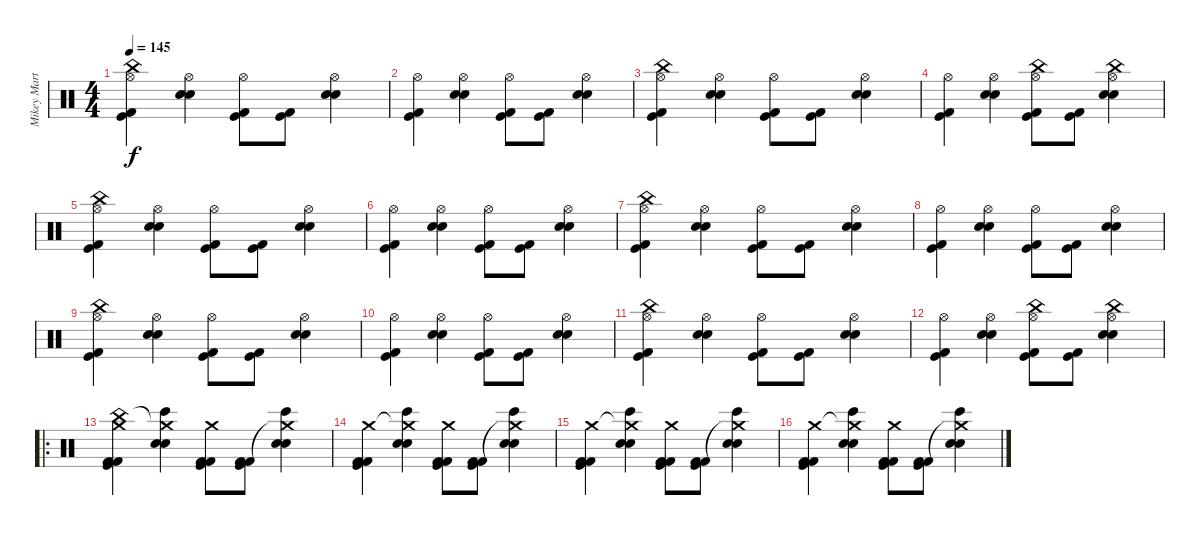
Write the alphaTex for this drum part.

\track ("Mikey Martin" "Mikey Mart") {instrument percussion}
\staff {score}
\articulation defaults
\ts (4 4)
\tempo 145
\clef neutral
\ks c
("China (hit)" "Hi-Hat (open)" "Kick (hit)" "Kick (hit) 2").4{dy f} ("Hi-Hat (open)" "Snare (hit) 2" "Electric Snare (hit)").4 ("Hi-Hat (open)" "Kick (hit)" "Kick (hit) 2").8 ("Kick (hit)" "Kick (hit) 2").8 ("Hi-Hat (open)" "Snare (hit) 2" "Electric Snare (hit)").4 |
("Hi-Hat (open)" "Kick (hit)" "Kick (hit) 2").4 ("Hi-Hat (open)" "Snare (hit) 2" "Electric Snare (hit)").4 ("Hi-Hat (open)" "Kick (hit)" "Kick (hit) 2").8 ("Kick (hit)" "Kick (hit) 2").8 ("Hi-Hat (open)" "Snare (hit) 2" "Electric Snare (hit)").4 |
("China (hit)" "Hi-Hat (open)" "Kick (hit)" "Kick (hit) 2").4 ("Hi-Hat (open)" "Snare (hit) 2" "Electric Snare (hit)").4 ("Hi-Hat (open)" "Kick (hit)" "Kick (hit) 2").8 ("Kick (hit)" "Kick (hit) 2").8 ("Hi-Hat (open)" "Snare (hit) 2" "Electric Snare (hit)").4 |
("Hi-Hat (open)" "Kick (hit)" "Kick (hit) 2").4 ("Hi-Hat (open)" "Snare (hit) 2" "Electric Snare (hit)").4 ("China (hit)" "Hi-Hat (open)" "Kick (hit)" "Kick (hit) 2").8 ("Kick (hit)" "Kick (hit) 2").8 ("China (hit)" "Hi-Hat (open)" "Snare (hit) 2" "Electric Snare (hit)").4 |
("China (hit)" "Hi-Hat (open)" "Kick (hit)" "Kick (hit) 2").4 ("Hi-Hat (open)" "Snare (hit) 2" "Electric Snare (hit)").4 ("Hi-Hat (open)" "Kick (hit)" "Kick (hit) 2").8 ("Kick (hit)" "Kick (hit) 2").8 ("Hi-Hat (open)" "Snare (hit) 2" "Electric Snare (hit)").4 |
("Hi-Hat (open)" "Kick (hit)" "Kick (hit) 2").4 ("Hi-Hat (open)" "Snare (hit) 2" "Electric Snare (hit)").4 ("Hi-Hat (open)" "Kick (hit)" "Kick (hit) 2").8 ("Kick (hit)" "Kick (hit) 2").8 ("Hi-Hat (open)" "Snare (hit) 2" "Electric Snare (hit)").4 |
("China (hit)" "Hi-Hat (open)" "Kick (hit)" "Kick (hit) 2").4 ("Hi-Hat (open)" "Snare (hit) 2" "Electric Snare (hit)").4 ("Hi-Hat (open)" "Kick (hit)" "Kick (hit) 2").8 ("Kick (hit)" "Kick (hit) 2").8 ("Hi-Hat (open)" "Snare (hit) 2" "Electric Snare (hit)").4 |
("Hi-Hat (open)" "Kick (hit)" "Kick (hit) 2").4 ("Hi-Hat (open)" "Snare (hit) 2" "Electric Snare (hit)").4 ("Hi-Hat (open)" "Kick (hit)" "Kick (hit) 2").8 ("Kick (hit)" "Kick (hit) 2").8 ("Hi-Hat (open)" "Snare (hit) 2" "Electric Snare (hit)").4 |
("China (hit)" "Hi-Hat (open)" "Kick (hit)" "Kick (hit) 2").4 ("Hi-Hat (open)" "Snare (hit) 2" "Electric Snare (hit)").4 ("Hi-Hat (open)" "Kick (hit)" "Kick (hit) 2").8 ("Kick (hit)" "Kick (hit) 2").8 ("Hi-Hat (open)" "Snare (hit) 2" "Electric Snare (hit)").4 |
("Hi-Hat (open)" "Kick (hit)" "Kick (hit) 2").4 ("Hi-Hat (open)" "Snare (hit) 2" "Electric Snare (hit)").4 ("Hi-Hat (open)" "Kick (hit)" "Kick (hit) 2").8 ("Kick (hit)" "Kick (hit) 2").8 ("Hi-Hat (open)" "Snare (hit) 2" "Electric Snare (hit)").4 |
("China (hit)" "Hi-Hat (open)" "Kick (hit)" "Kick (hit) 2").4 ("Hi-Hat (open)" "Snare (hit) 2" "Electric Snare (hit)").4 ("Hi-Hat (open)" "Kick (hit)" "Kick (hit) 2").8 ("Kick (hit)" "Kick (hit) 2").8 ("Hi-Hat (open)" "Snare (hit) 2" "Electric Snare (hit)").4 |
("Hi-Hat (open)" "Kick (hit)" "Kick (hit) 2").4 ("Hi-Hat (open)" "Snare (hit) 2" "Electric Snare (hit)").4 ("China (hit)" "Hi-Hat (open)" "Kick (hit)" "Kick (hit) 2").8 ("Kick (hit)" "Kick (hit) 2").8 ("China (hit)" "Hi-Hat (open)" "Snare (hit) 2" "Electric Snare (hit)").4 |
\ro
("China (hit)" "Crash medium (hit)" "Kick (hit)" "Kick (hit) 2" "Kick (hit) 2").4 ("Crash medium (hit)"{t} "Bongo High (hit)" "Snare (hit) 2" "Electric Snare (hit)").4 ("Crash medium (hit)" "Kick (hit)" "Kick (hit) 2" "Kick (hit) 2").8 ("Kick (hit)" "Kick (hit) 2" "Kick (hit) 2").8 ("Crash medium (hit)"{t} "Bongo High (hit)" "Snare (hit) 2" "Electric Snare (hit)").4 |
("Crash medium (hit)" "Kick (hit)" "Kick (hit) 2" "Kick (hit) 2").4 ("Crash medium (hit)"{t} "Bongo High (hit)" "Snare (hit) 2" "Electric Snare (hit)").4 ("Crash medium (hit)" "Kick (hit)" "Kick (hit) 2" "Kick (hit) 2").8 ("Kick (hit)" "Kick (hit) 2" "Kick (hit) 2").8 ("Crash medium (hit)"{t} "Bongo High (hit)" "Snare (hit) 2" "Electric Snare (hit)").4 |
("Crash medium (hit)" "Kick (hit)" "Kick (hit) 2" "Kick (hit) 2").4 ("Crash medium (hit)"{t} "Bongo High (hit)" "Snare (hit) 2" "Electric Snare (hit)").4 ("Crash medium (hit)" "Kick (hit)" "Kick (hit) 2" "Kick (hit) 2").8 ("Kick (hit)" "Kick (hit) 2" "Kick (hit) 2").8 ("Crash medium (hit)"{t} "Bongo High (hit)" "Snare (hit) 2" "Electric Snare (hit)").4 |
("Crash medium (hit)" "Kick (hit)" "Kick (hit) 2" "Kick (hit) 2").4 ("Crash medium (hit)"{t} "Bongo High (hit)" "Snare (hit) 2" "Electric Snare (hit)").4 ("Crash medium (hit)" "Kick (hit)" "Kick (hit) 2" "Kick (hit) 2").8 ("Kick (hit)" "Kick (hit) 2" "Kick (hit) 2").8 ("Crash medium (hit)"{t} "Bongo High (hit)" "Snare (hit) 2" "Electric Snare (hit)").4
